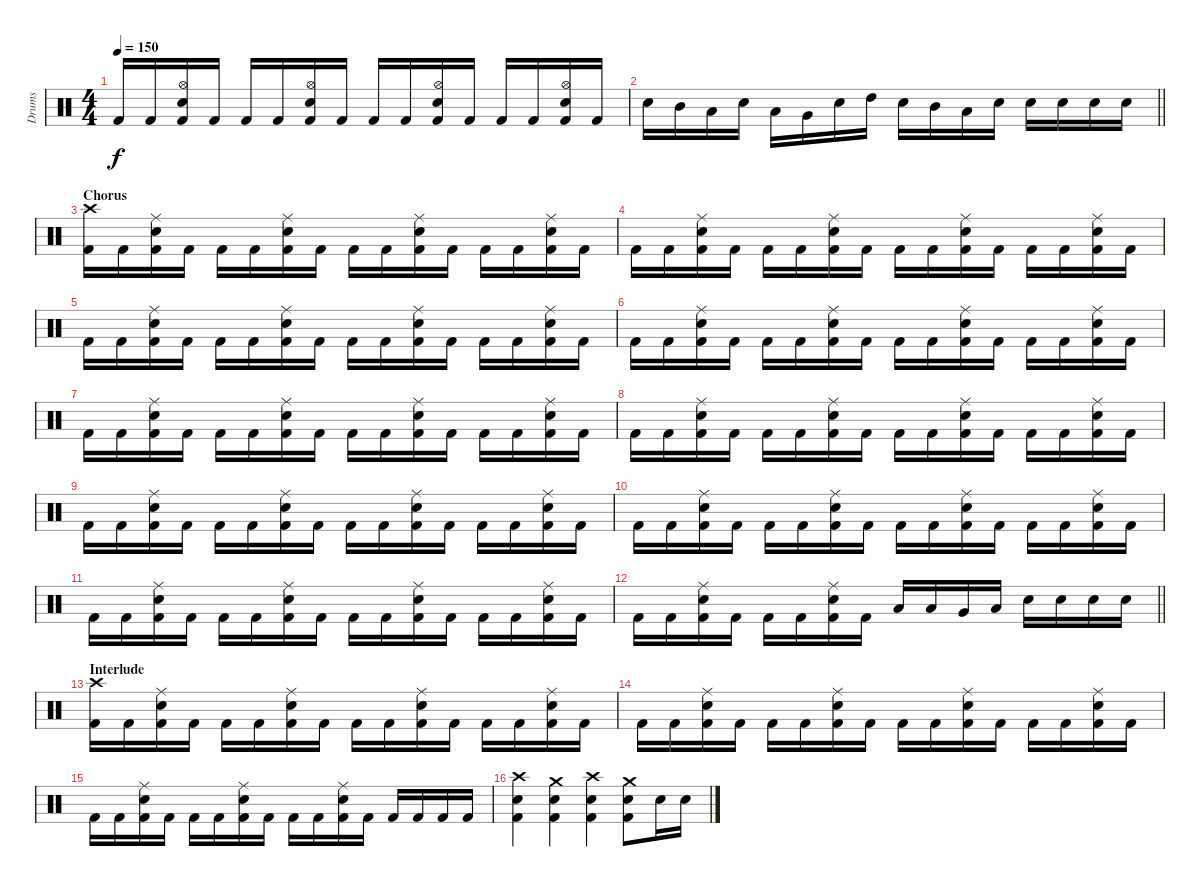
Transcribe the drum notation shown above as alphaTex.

\track ("Drums" "Drums") {instrument percussion}
\staff {score}
\articulation defaults
\ts (4 4)
\tempo 150
\clef neutral
\ks c "Kick (hit) 2".16{dy f} "Kick (hit) 2".16
("Hi-Hat (open)" "Snare (hit) 2" "Kick (hit) 2").16 "Kick (hit) 2".16 "Kick (hit) 2".16 "Kick (hit) 2".16 ("Hi-Hat (open)" "Snare (hit) 2" "Kick (hit) 2").16 "Kick (hit) 2".16 "Kick (hit) 2".16 "Kick (hit) 2".16 ("Hi-Hat (open)" "Snare (hit) 2" "Kick (hit) 2").16 "Kick (hit) 2".16 "Kick (hit) 2".16 "Kick (hit) 2".16 ("Hi-Hat (open)" "Snare (hit) 2" "Kick (hit) 2").16 "Kick (hit) 2".16 |
\barLineRight lightlight "Snare (hit) 2".16 "Mid Tom (hit)".16 "Low Tom (hit)".16 "Snare (hit) 2".16 "Low Tom (hit)".16 "Very Low Tom (hit)".16 "Snare (hit) 2".16 "High Tom (hit)".16 "Snare (hit) 2".16 "Mid Tom (hit)".16 "Low Tom (hit)".16 "Snare (hit) 2".16 "Snare (hit) 2".16 "Snare (hit) 2".16 "Electric Snare (hit)".16 "Electric Snare (hit)".16
|
\section ("" "Chorus")
("Crash high (hit)" "Kick (hit) 2").16 "Kick (hit) 2".16 ("Ride (middle)" "Snare (hit) 2" "Kick (hit) 2").16 "Kick (hit) 2".16 "Kick (hit) 2".16 "Kick (hit) 2".16 ("Ride (middle)" "Snare (hit) 2" "Kick (hit) 2").16 "Kick (hit) 2".16 "Kick (hit) 2".16 "Kick (hit) 2".16 ("Ride (middle)" "Snare (hit) 2" "Kick (hit) 2").16 "Kick (hit) 2".16 "Kick (hit) 2".16 "Kick (hit) 2".16 ("Ride (middle)" "Snare (hit) 2" "Kick (hit) 2").16 "Kick (hit) 2".16 |
"Kick (hit) 2".16 "Kick (hit) 2".16 ("Ride (middle)" "Snare (hit) 2" "Kick (hit) 2").16 "Kick (hit) 2".16 "Kick (hit) 2".16 "Kick (hit) 2".16 ("Ride (middle)" "Snare (hit) 2" "Kick (hit) 2").16 "Kick (hit) 2".16 "Kick (hit) 2".16 "Kick (hit) 2".16 ("Ride (middle)" "Snare (hit) 2" "Kick (hit) 2").16 "Kick (hit) 2".16 "Kick (hit) 2".16 "Kick (hit) 2".16 ("Ride (middle)" "Snare (hit) 2" "Kick (hit) 2").16 "Kick (hit) 2".16 |
"Kick (hit) 2".16 "Kick (hit) 2".16 ("Ride (middle)" "Snare (hit) 2" "Kick (hit) 2").16 "Kick (hit) 2".16 "Kick (hit) 2".16 "Kick (hit) 2".16 ("Ride (middle)" "Snare (hit) 2" "Kick (hit) 2").16 "Kick (hit) 2".16 "Kick (hit) 2".16 "Kick (hit) 2".16 ("Ride (middle)" "Snare (hit) 2" "Kick (hit) 2").16 "Kick (hit) 2".16 "Kick (hit) 2".16 "Kick (hit) 2".16 ("Ride (middle)" "Snare (hit) 2" "Kick (hit) 2").16 "Kick (hit) 2".16 |
"Kick (hit) 2".16 "Kick (hit) 2".16 ("Ride (middle)" "Snare (hit) 2" "Kick (hit) 2").16 "Kick (hit) 2".16 "Kick (hit) 2".16 "Kick (hit) 2".16 ("Ride (middle)" "Snare (hit) 2" "Kick (hit) 2").16 "Kick (hit) 2".16 "Kick (hit) 2".16 "Kick (hit) 2".16 ("Ride (middle)" "Snare (hit) 2" "Kick (hit) 2").16 "Kick (hit) 2".16 "Kick (hit) 2".16 "Kick (hit) 2".16 ("Ride (middle)" "Snare (hit) 2" "Kick (hit) 2").16 "Kick (hit) 2".16 |
"Kick (hit) 2".16 "Kick (hit) 2".16 ("Ride (middle)" "Snare (hit) 2" "Kick (hit) 2").16 "Kick (hit) 2".16 "Kick (hit) 2".16 "Kick (hit) 2".16 ("Ride (middle)" "Snare (hit) 2" "Kick (hit) 2").16 "Kick (hit) 2".16 "Kick (hit) 2".16 "Kick (hit) 2".16 ("Ride (middle)" "Snare (hit) 2" "Kick (hit) 2").16 "Kick (hit) 2".16 "Kick (hit) 2".16 "Kick (hit) 2".16 ("Ride (middle)" "Snare (hit) 2" "Kick (hit) 2").16 "Kick (hit) 2".16 |
"Kick (hit) 2".16 "Kick (hit) 2".16 ("Ride (middle)" "Snare (hit) 2" "Kick (hit) 2").16 "Kick (hit) 2".16 "Kick (hit) 2".16 "Kick (hit) 2".16 ("Ride (middle)" "Snare (hit) 2" "Kick (hit) 2").16 "Kick (hit) 2".16 "Kick (hit) 2".16 "Kick (hit) 2".16 ("Ride (middle)" "Snare (hit) 2" "Kick (hit) 2").16 "Kick (hit) 2".16 "Kick (hit) 2".16 "Kick (hit) 2".16 ("Ride (middle)" "Snare (hit) 2" "Kick (hit) 2").16 "Kick (hit) 2".16 |
"Kick (hit) 2".16 "Kick (hit) 2".16 ("Ride (middle)" "Snare (hit) 2" "Kick (hit) 2").16 "Kick (hit) 2".16 "Kick (hit) 2".16 "Kick (hit) 2".16 ("Ride (middle)" "Snare (hit) 2" "Kick (hit) 2").16 "Kick (hit) 2".16 "Kick (hit) 2".16 "Kick (hit) 2".16 ("Ride (middle)" "Snare (hit) 2" "Kick (hit) 2").16 "Kick (hit) 2".16 "Kick (hit) 2".16 "Kick (hit) 2".16 ("Ride (middle)" "Snare (hit) 2" "Kick (hit) 2").16 "Kick (hit) 2".16 |
"Kick (hit) 2".16 "Kick (hit) 2".16 ("Ride (middle)" "Snare (hit) 2" "Kick (hit) 2").16 "Kick (hit) 2".16 "Kick (hit) 2".16 "Kick (hit) 2".16 ("Ride (middle)" "Snare (hit) 2" "Kick (hit) 2").16 "Kick (hit) 2".16 "Kick (hit) 2".16 "Kick (hit) 2".16 ("Ride (middle)" "Snare (hit) 2" "Kick (hit) 2").16 "Kick (hit) 2".16 "Kick (hit) 2".16 "Kick (hit) 2".16 ("Ride (middle)" "Snare (hit) 2" "Kick (hit) 2").16 "Kick (hit) 2".16 |
"Kick (hit) 2".16 "Kick (hit) 2".16 ("Ride (middle)" "Snare (hit) 2" "Kick (hit) 2").16 "Kick (hit) 2".16 "Kick (hit) 2".16 "Kick (hit) 2".16 ("Ride (middle)" "Snare (hit) 2" "Kick (hit) 2").16 "Kick (hit) 2".16 "Kick (hit) 2".16 "Kick (hit) 2".16 ("Ride (middle)" "Snare (hit) 2" "Kick (hit) 2").16 "Kick (hit) 2".16 "Kick (hit) 2".16 "Kick (hit) 2".16 ("Ride (middle)" "Snare (hit) 2" "Kick (hit) 2").16 "Kick (hit) 2".16 |
\barLineRight lightlight "Kick (hit) 2".16 "Kick (hit) 2".16
("Ride (middle)" "Snare (hit) 2" "Kick (hit) 2").16 "Kick (hit) 2".16 "Kick (hit) 2".16 "Kick (hit) 2".16 ("Ride (middle)" "Snare (hit) 2" "Kick (hit) 2").16 "Kick (hit) 2".16 "Low Tom (hit)".16 "Low Tom (hit)".16 "Very Low Tom (hit)".16 "Low Floor Tom (hit)".16 "Snare (hit) 2".16 "Snare (hit) 2".16 "Snare (hit) 2".16 "Snare (hit) 2".16 |
\section ("" "Interlude")
("Crash high (hit)" "Kick (hit) 2").16 "Kick (hit) 2".16 ("Ride (middle)" "Snare (hit) 2" "Kick (hit) 2").16 "Kick (hit) 2".16 "Kick (hit) 2".16 "Kick (hit) 2".16 ("Ride (middle)" "Snare (hit) 2" "Kick (hit) 2").16 "Kick (hit) 2".16 "Kick (hit) 2".16 "Kick (hit) 2".16 ("Ride (middle)" "Snare (hit) 2" "Kick (hit) 2").16 "Kick (hit) 2".16 "Kick (hit) 2".16 "Kick (hit) 2".16 ("Ride (middle)" "Snare (hit) 2" "Kick (hit) 2").16 "Kick (hit) 2".16 |
"Kick (hit) 2".16 "Kick (hit) 2".16 ("Ride (middle)" "Snare (hit) 2" "Kick (hit) 2").16 "Kick (hit) 2".16 "Kick (hit) 2".16 "Kick (hit) 2".16 ("Ride (middle)" "Snare (hit) 2" "Kick (hit) 2").16 "Kick (hit) 2".16 "Kick (hit) 2".16 "Kick (hit) 2".16 ("Ride (middle)" "Snare (hit) 2" "Kick (hit) 2").16 "Kick (hit) 2".16 "Kick (hit) 2".16 "Kick (hit) 2".16 ("Ride (middle)" "Snare (hit) 2" "Kick (hit) 2").16 "Kick (hit) 2".16 |
"Kick (hit) 2".16 "Kick (hit) 2".16 ("Ride (middle)" "Snare (hit) 2" "Kick (hit) 2").16 "Kick (hit) 2".16 "Kick (hit) 2".16 "Kick (hit) 2".16 ("Ride (middle)" "Snare (hit) 2" "Kick (hit) 2").16 "Kick (hit) 2".16 "Kick (hit) 2".16 "Kick (hit) 2".16 ("Ride (middle)" "Snare (hit) 2" "Kick (hit) 2").16 "Kick (hit) 2".16 "Kick (hit) 2".16 "Kick (hit) 2".16 "Kick (hit) 2".16 "Kick (hit) 2".16 |
("Crash high (hit)" "Snare (hit) 2" "Kick (hit) 2").4 ("Crash medium (hit)" "Snare (hit) 2" "Kick (hit) 2").4 ("Crash high (hit)" "Snare (hit) 2" "Kick (hit) 2").4 ("Crash medium (hit)" "Snare (hit) 2" "Kick (hit) 2").8 "Snare (hit) 2".16 "Snare (hit) 2".16
